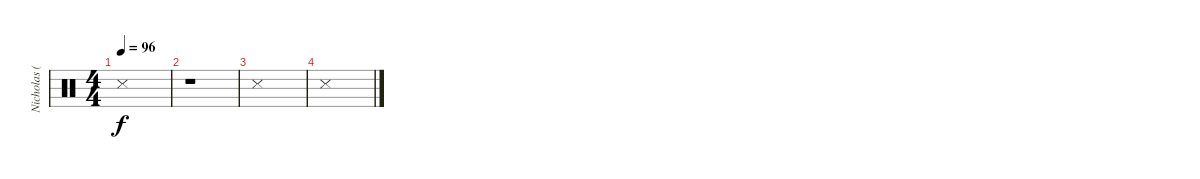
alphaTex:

\track ("Nicholas (Drums)" "Nicholas (") {instrument percussion}
\staff {score}
\articulation defaults
\ts (4 4)
\tempo 96
\clef neutral
\ks c "Snare (side stick) 3".1{dy f}
|
r.1 |
"Snare (side stick) 3".1 |
"Metronome (hit)".1
